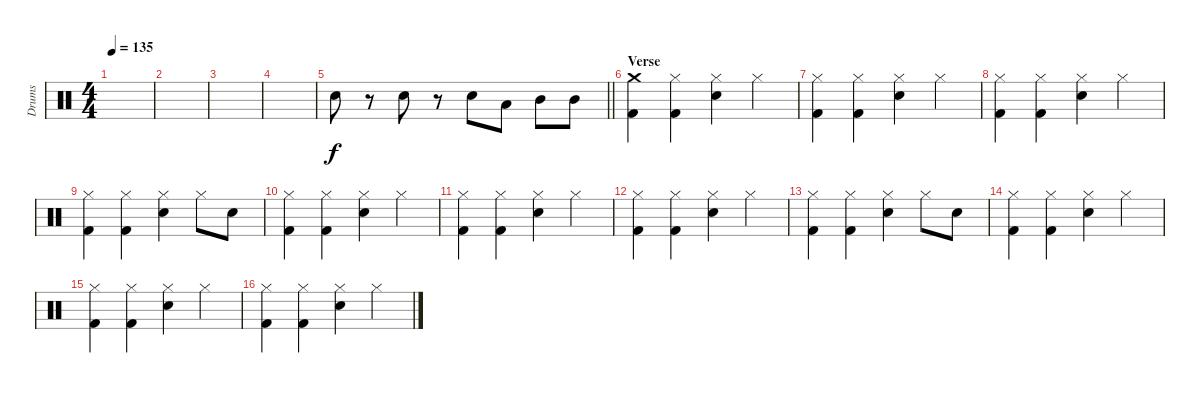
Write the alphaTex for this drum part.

\track ("Drums" "Drums") {mute instrument percussion}
\staff {score}
\articulation defaults
\ts (4 4)
\tempo 135
\clef neutral
\ks c
|
|
|
|
\barLineRight lightlight "Snare (hit) 2".8
r.8 "Snare (hit) 2".8 r.8 "Snare (hit) 2".8 "Low Tom (hit)".8 "Mid Tom (hit)".8 "Mid Tom (hit)".8 |
\section ("" "Verse")
("Crash medium (hit)" "Kick (hit) 2").4 ("Hi-Hat (closed)" "Kick (hit) 2").4 ("Hi-Hat (closed)" "Snare (hit) 2").4 "Hi-Hat (closed)".4 |
("Hi-Hat (closed)" "Kick (hit) 2").4 ("Hi-Hat (closed)" "Kick (hit) 2").4 ("Hi-Hat (closed)" "Snare (hit) 2").4 "Hi-Hat (closed)".4 |
("Hi-Hat (closed)" "Kick (hit) 2").4 ("Hi-Hat (closed)" "Kick (hit) 2").4 ("Hi-Hat (closed)" "Snare (hit) 2").4 "Hi-Hat (closed)".4 |
("Hi-Hat (closed)" "Kick (hit) 2").4 ("Hi-Hat (closed)" "Kick (hit) 2").4 ("Hi-Hat (closed)" "Snare (hit) 2").4 "Hi-Hat (closed)".8 "Snare (hit) 2".8 |
("Hi-Hat (closed)" "Kick (hit) 2").4 ("Hi-Hat (closed)" "Kick (hit) 2").4 ("Hi-Hat (closed)" "Snare (hit) 2").4 "Hi-Hat (closed)".4 |
("Hi-Hat (closed)" "Kick (hit) 2").4 ("Hi-Hat (closed)" "Kick (hit) 2").4 ("Hi-Hat (closed)" "Snare (hit) 2").4 "Hi-Hat (closed)".4 |
("Hi-Hat (closed)" "Kick (hit) 2").4 ("Hi-Hat (closed)" "Kick (hit) 2").4 ("Hi-Hat (closed)" "Snare (hit) 2").4 "Hi-Hat (closed)".4 |
("Hi-Hat (closed)" "Kick (hit) 2").4 ("Hi-Hat (closed)" "Kick (hit) 2").4 ("Hi-Hat (closed)" "Snare (hit) 2").4 "Hi-Hat (closed)".8 "Snare (hit) 2".8 |
("Hi-Hat (closed)" "Kick (hit) 2").4 ("Hi-Hat (closed)" "Kick (hit) 2").4 ("Hi-Hat (closed)" "Snare (hit) 2").4 "Hi-Hat (closed)".4 |
("Hi-Hat (closed)" "Kick (hit) 2").4 ("Hi-Hat (closed)" "Kick (hit) 2").4 ("Hi-Hat (closed)" "Snare (hit) 2").4 "Hi-Hat (closed)".4 |
("Hi-Hat (closed)" "Kick (hit) 2").4 ("Hi-Hat (closed)" "Kick (hit) 2").4 ("Hi-Hat (closed)" "Snare (hit) 2").4 "Hi-Hat (closed)".4
